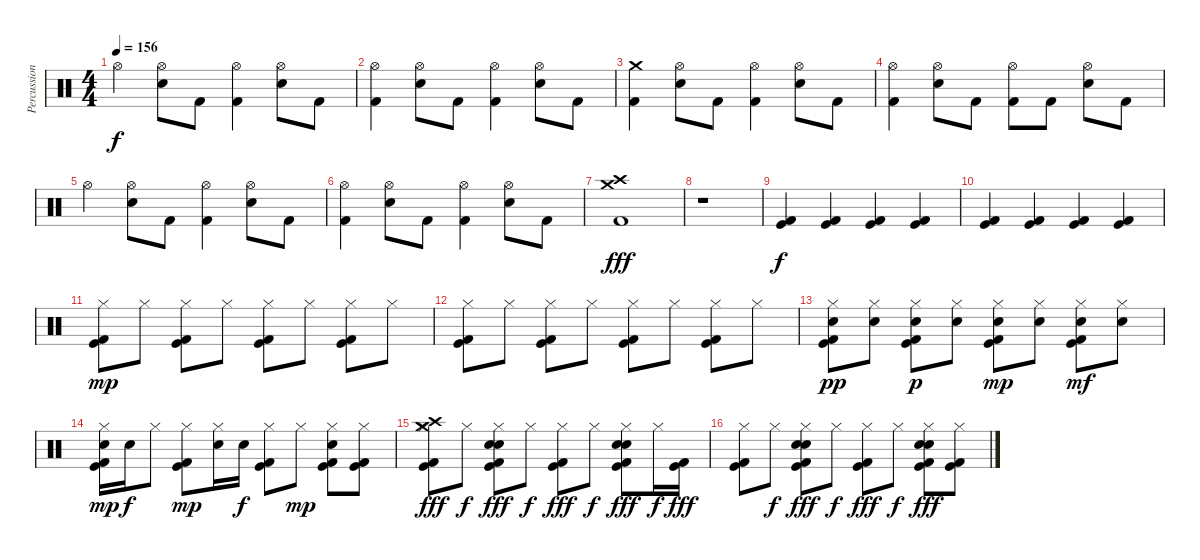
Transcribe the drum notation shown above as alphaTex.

\track ("Percussion" "Percussion") {instrument percussion}
\staff {score}
\articulation defaults
\ts (4 4)
\tempo 156
\clef neutral
\ks c "Hi-Hat (open)".4{dy f}
("Hi-Hat (open)" "Electric Snare (hit)").8 "Kick (hit) 2".8 ("Hi-Hat (open)" "Kick (hit) 2").4 ("Hi-Hat (open)" "Electric Snare (hit)").8 "Kick (hit) 2".8 |
("Hi-Hat (open)" "Kick (hit) 2").4 ("Hi-Hat (open)" "Electric Snare (hit)").8 "Kick (hit) 2".8 ("Hi-Hat (open)" "Kick (hit) 2").4 ("Hi-Hat (open)" "Electric Snare (hit)").8 "Kick (hit) 2".8 |
("Crash medium (hit)" "Kick (hit) 2").4 ("Hi-Hat (open)" "Electric Snare (hit)").8 "Kick (hit) 2".8 ("Hi-Hat (open)" "Kick (hit) 2").4 ("Hi-Hat (open)" "Electric Snare (hit)").8 "Kick (hit) 2".8 |
("Hi-Hat (open)" "Kick (hit) 2").4 ("Hi-Hat (open)" "Electric Snare (hit)").8 "Kick (hit) 2".8 ("Hi-Hat (open)" "Kick (hit) 2").8 "Kick (hit) 2".8 ("Hi-Hat (open)" "Electric Snare (hit)").8 "Kick (hit) 2".8 |
"Hi-Hat (open)".4 ("Hi-Hat (open)" "Electric Snare (hit)").8 "Kick (hit) 2".8 ("Hi-Hat (open)" "Kick (hit) 2").4 ("Hi-Hat (open)" "Electric Snare (hit)").8 "Kick (hit) 2".8 |
("Hi-Hat (open)" "Kick (hit) 2").4 ("Hi-Hat (open)" "Electric Snare (hit)").8 "Kick (hit) 2".8 ("Hi-Hat (open)" "Kick (hit) 2").4 ("Hi-Hat (open)" "Electric Snare (hit)").8 "Kick (hit) 2".8 |
("Crash medium (hit)" "Crash high (hit)" "Kick (hit) 2").1{dy fff} |
r.1 |
("Kick (hit)" "Kick (hit) 2").4{dy f} ("Kick (hit)" "Kick (hit) 2").4 ("Kick (hit)" "Kick (hit) 2").4 ("Kick (hit)" "Kick (hit) 2").4 |
("Kick (hit)" "Kick (hit) 2").4 ("Kick (hit)" "Kick (hit) 2").4 ("Kick (hit)" "Kick (hit) 2").4 ("Kick (hit)" "Kick (hit) 2").4 |
("Hi-Hat (closed)" "Kick (hit)" "Kick (hit) 2").8{dy mp} "Hi-Hat (closed)".8 ("Hi-Hat (closed)" "Kick (hit)" "Kick (hit) 2").8 "Hi-Hat (closed)".8 ("Hi-Hat (closed)" "Kick (hit)" "Kick (hit) 2").8 "Hi-Hat (closed)".8 ("Hi-Hat (closed)" "Kick (hit)" "Kick (hit) 2").8 "Hi-Hat (closed)".8 |
("Hi-Hat (closed)" "Kick (hit)" "Kick (hit) 2").8 "Hi-Hat (closed)".8 ("Hi-Hat (closed)" "Kick (hit)" "Kick (hit) 2").8 "Hi-Hat (closed)".8 ("Hi-Hat (closed)" "Kick (hit)" "Kick (hit) 2").8 "Hi-Hat (closed)".8 ("Hi-Hat (closed)" "Kick (hit)" "Kick (hit) 2").8 "Hi-Hat (closed)".8 |
("Hi-Hat (closed)" "Kick (hit)" "Kick (hit) 2" "Electric Snare (hit)").8{dy pp} ("Hi-Hat (closed)" "Electric Snare (hit)").8 ("Hi-Hat (closed)" "Kick (hit)" "Kick (hit) 2" "Electric Snare (hit)").8{dy p} ("Hi-Hat (closed)" "Electric Snare (hit)").8 ("Hi-Hat (closed)" "Kick (hit)" "Kick (hit) 2" "Electric Snare (hit)").8{dy mp} ("Hi-Hat (closed)" "Electric Snare (hit)").8 ("Hi-Hat (closed)" "Kick (hit)" "Kick (hit) 2" "Electric Snare (hit)").8{dy mf} ("Hi-Hat (closed)" "Electric Snare (hit)").8 |
("Hi-Hat (closed)" "Kick (hit)" "Kick (hit) 2" "Electric Snare (hit)").16{dy mp} "Electric Snare (hit)".16{dy f} "Hi-Hat (closed)".8 ("Hi-Hat (closed)" "Kick (hit)" "Kick (hit) 2").8{dy mp} ("Hi-Hat (closed)" "Electric Snare (hit)").16 "Electric Snare (hit)".16{dy f} ("Hi-Hat (closed)" "Kick (hit)" "Kick (hit) 2").8 "Hi-Hat (closed)".8{dy mp} ("Hi-Hat (closed)" "Kick (hit)" "Kick (hit) 2" "Electric Snare (hit)").8 ("Hi-Hat (closed)" "Kick (hit)" "Kick (hit) 2").8 |
("Crash high (hit)" "Hi-Hat (closed)" "Kick (hit)" "Kick (hit) 2" "Crash medium (hit)").8{dy fff} "Hi-Hat (closed)".8{dy f} ("Hi-Hat (closed)" "Kick (hit)" "Kick (hit) 2" "Electric Snare (hit)" "Snare (hit) 2").8{dy fff} "Hi-Hat (closed)".8{dy f} ("Hi-Hat (closed)" "Kick (hit)" "Kick (hit) 2").8{dy fff} "Hi-Hat (closed)".8{dy f} ("Hi-Hat (closed)" "Kick (hit)" "Kick (hit) 2" "Electric Snare (hit)" "Snare (hit) 2").8{dy fff} "Hi-Hat (closed)".16{dy f} ("Kick (hit)" "Kick (hit) 2").16{dy fff} |
("Hi-Hat (closed)" "Kick (hit)" "Kick (hit) 2").8 "Hi-Hat (closed)".8{dy f} ("Hi-Hat (closed)" "Kick (hit)" "Kick (hit) 2" "Electric Snare (hit)" "Snare (hit) 2").8{dy fff} "Hi-Hat (closed)".8{dy f} ("Hi-Hat (closed)" "Kick (hit)" "Kick (hit) 2").8{dy fff} "Hi-Hat (closed)".8{dy f} ("Hi-Hat (closed)" "Kick (hit)" "Kick (hit) 2" "Electric Snare (hit)" "Snare (hit) 2").8{dy fff} ("Hi-Hat (closed)" "Kick (hit)" "Kick (hit) 2").8
